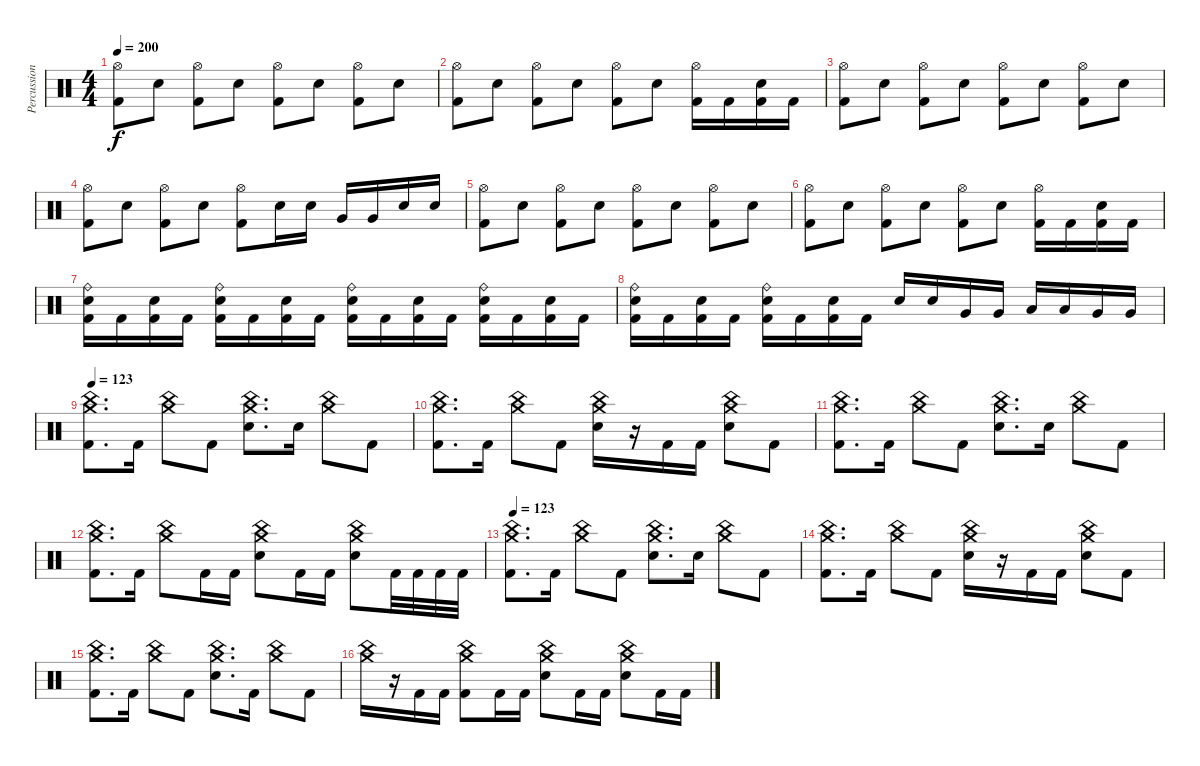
\track ("Percussions" "Percussion") {instrument percussion}
\staff {score}
\articulation defaults
\ts (4 4)
\tempo 200
\clef neutral
\ks c
("Hi-Hat (open)" "Kick (hit) 2").8{dy f} "Electric Snare (hit)".8 ("Hi-Hat (open)" "Kick (hit) 2").8 "Electric Snare (hit)".8 ("Hi-Hat (open)" "Kick (hit) 2").8 "Electric Snare (hit)".8 ("Hi-Hat (open)" "Kick (hit) 2").8 "Electric Snare (hit)".8 |
("Hi-Hat (open)" "Kick (hit) 2").8 "Electric Snare (hit)".8 ("Hi-Hat (open)" "Kick (hit) 2").8 "Electric Snare (hit)".8 ("Hi-Hat (open)" "Kick (hit) 2").8 "Electric Snare (hit)".8 ("Hi-Hat (open)" "Kick (hit) 2").16 "Kick (hit) 2".16 ("Electric Snare (hit)" "Kick (hit) 2").16 "Kick (hit) 2".16 |
("Hi-Hat (open)" "Kick (hit) 2").8 "Electric Snare (hit)".8 ("Hi-Hat (open)" "Kick (hit) 2").8 "Electric Snare (hit)".8 ("Hi-Hat (open)" "Kick (hit) 2").8 "Electric Snare (hit)".8 ("Hi-Hat (open)" "Kick (hit) 2").8 "Electric Snare (hit)".8 |
("Hi-Hat (open)" "Kick (hit) 2").8 "Electric Snare (hit)".8 ("Hi-Hat (open)" "Kick (hit) 2").8 "Electric Snare (hit)".8 ("Hi-Hat (open)" "Kick (hit) 2").8 "Electric Snare (hit)".16 "Electric Snare (hit)".16 "Very Low Tom (hit)".16 "Very Low Tom (hit)".16 "Electric Snare (hit)".16 "Electric Snare (hit)".16 |
("Hi-Hat (open)" "Kick (hit) 2").8 "Electric Snare (hit)".8 ("Hi-Hat (open)" "Kick (hit) 2").8 "Electric Snare (hit)".8 ("Hi-Hat (open)" "Kick (hit) 2").8 "Electric Snare (hit)".8 ("Hi-Hat (open)" "Kick (hit) 2").8 "Electric Snare (hit)".8 |
("Hi-Hat (open)" "Kick (hit) 2").8 "Electric Snare (hit)".8 ("Hi-Hat (open)" "Kick (hit) 2").8 "Electric Snare (hit)".8 ("Hi-Hat (open)" "Kick (hit) 2").8 "Electric Snare (hit)".8 ("Hi-Hat (open)" "Kick (hit) 2").16 "Kick (hit) 2".16 ("Electric Snare (hit)" "Kick (hit) 2").16 "Kick (hit) 2".16 |
("Ride (bell)" "Electric Snare (hit)" "Kick (hit) 2").16 "Kick (hit) 2".16 ("Electric Snare (hit)" "Kick (hit) 2").16 "Kick (hit) 2".16 ("Ride (bell)" "Electric Snare (hit)" "Kick (hit) 2").16 "Kick (hit) 2".16 ("Electric Snare (hit)" "Kick (hit) 2").16 "Kick (hit) 2".16 ("Ride (bell)" "Electric Snare (hit)" "Kick (hit) 2").16 "Kick (hit) 2".16 ("Electric Snare (hit)" "Kick (hit) 2").16 "Kick (hit) 2".16 ("Ride (bell)" "Electric Snare (hit)" "Kick (hit) 2").16 "Kick (hit) 2".16 ("Electric Snare (hit)" "Kick (hit) 2").16 "Kick (hit) 2".16 |
("Ride (bell)" "Electric Snare (hit)" "Kick (hit) 2").16 "Kick (hit) 2".16 ("Electric Snare (hit)" "Kick (hit) 2").16 "Kick (hit) 2".16 ("Ride (bell)" "Electric Snare (hit)" "Kick (hit) 2").16 "Kick (hit) 2".16 ("Electric Snare (hit)" "Kick (hit) 2").16 "Kick (hit) 2".16 "Electric Snare (hit)".16 "Electric Snare (hit)".16 "Very Low Tom (hit)".16 "Very Low Tom (hit)".16 "Low Floor Tom (hit)".16 "Low Floor Tom (hit)".16 "Very Low Tom (hit)".16 "Very Low Tom (hit)".16 |
\tempo 123
("China (hit)" "Crash medium (hit)" "Kick (hit) 2").8{d} "Kick (hit) 2".16 ("China (hit)" "Crash medium (hit)").8 "Kick (hit) 2".8 ("China (hit)" "Crash medium (hit)" "Electric Snare (hit)").8{d} "Electric Snare (hit)".16 ("China (hit)" "Crash medium (hit)").8 "Kick (hit) 2".8 |
("China (hit)" "Crash medium (hit)" "Kick (hit) 2").8{d} "Kick (hit) 2".16 ("China (hit)" "Crash medium (hit)").8 "Kick (hit) 2".8 ("China (hit)" "Crash medium (hit)" "Electric Snare (hit)").16 r.16 "Kick (hit) 2".16 "Kick (hit) 2".16 ("China (hit)" "Crash medium (hit)" "Electric Snare (hit)").8 "Kick (hit) 2".8 |
("China (hit)" "Crash medium (hit)" "Kick (hit) 2").8{d} "Kick (hit) 2".16 ("China (hit)" "Crash medium (hit)").8 "Kick (hit) 2".8 ("China (hit)" "Crash medium (hit)" "Electric Snare (hit)").8{d} "Electric Snare (hit)".16 ("China (hit)" "Crash medium (hit)").8 "Kick (hit) 2".8 |
("China (hit)" "Crash medium (hit)" "Kick (hit) 2").8{d} "Kick (hit) 2".16 ("China (hit)" "Crash medium (hit)").8 "Kick (hit) 2".16 "Kick (hit) 2".16 ("China (hit)" "Crash medium (hit)" "Electric Snare (hit)").8 "Kick (hit) 2".16 "Kick (hit) 2".16 ("China (hit)" "Crash medium (hit)" "Electric Snare (hit)").8 "Kick (hit) 2".32 "Kick (hit) 2".32 "Kick (hit) 2".32 "Kick (hit) 2".32 |
\tempo 123
("China (hit)" "Crash medium (hit)" "Kick (hit) 2").8{d} "Kick (hit) 2".16 ("China (hit)" "Crash medium (hit)").8 "Kick (hit) 2".8 ("China (hit)" "Crash medium (hit)" "Electric Snare (hit)").8{d} "Electric Snare (hit)".16 ("China (hit)" "Crash medium (hit)").8 "Kick (hit) 2".8 |
("China (hit)" "Crash medium (hit)" "Kick (hit) 2").8{d} "Kick (hit) 2".16 ("China (hit)" "Crash medium (hit)").8 "Kick (hit) 2".8 ("China (hit)" "Crash medium (hit)" "Electric Snare (hit)").16 r.16 "Kick (hit) 2".16 "Kick (hit) 2".16 ("China (hit)" "Crash medium (hit)" "Electric Snare (hit)").8 "Kick (hit) 2".8 |
("China (hit)" "Crash medium (hit)" "Kick (hit) 2").8{d} "Kick (hit) 2".16 ("China (hit)" "Crash medium (hit)").8 "Kick (hit) 2".8 ("China (hit)" "Crash medium (hit)" "Electric Snare (hit)").8{d} "Kick (hit) 2".16 ("China (hit)" "Crash medium (hit)").8 "Kick (hit) 2".8 |
("China (hit)" "Crash medium (hit)").16 r.16 "Kick (hit) 2".16 "Kick (hit) 2".16 ("China (hit)" "Crash medium (hit)" "Kick (hit) 2").8 "Kick (hit) 2".16 "Kick (hit) 2".16 ("China (hit)" "Crash medium (hit)" "Electric Snare (hit)").8 "Kick (hit) 2".16 "Kick (hit) 2".16 ("China (hit)" "Crash medium (hit)" "Electric Snare (hit)").8 "Kick (hit) 2".16 "Kick (hit) 2".16
